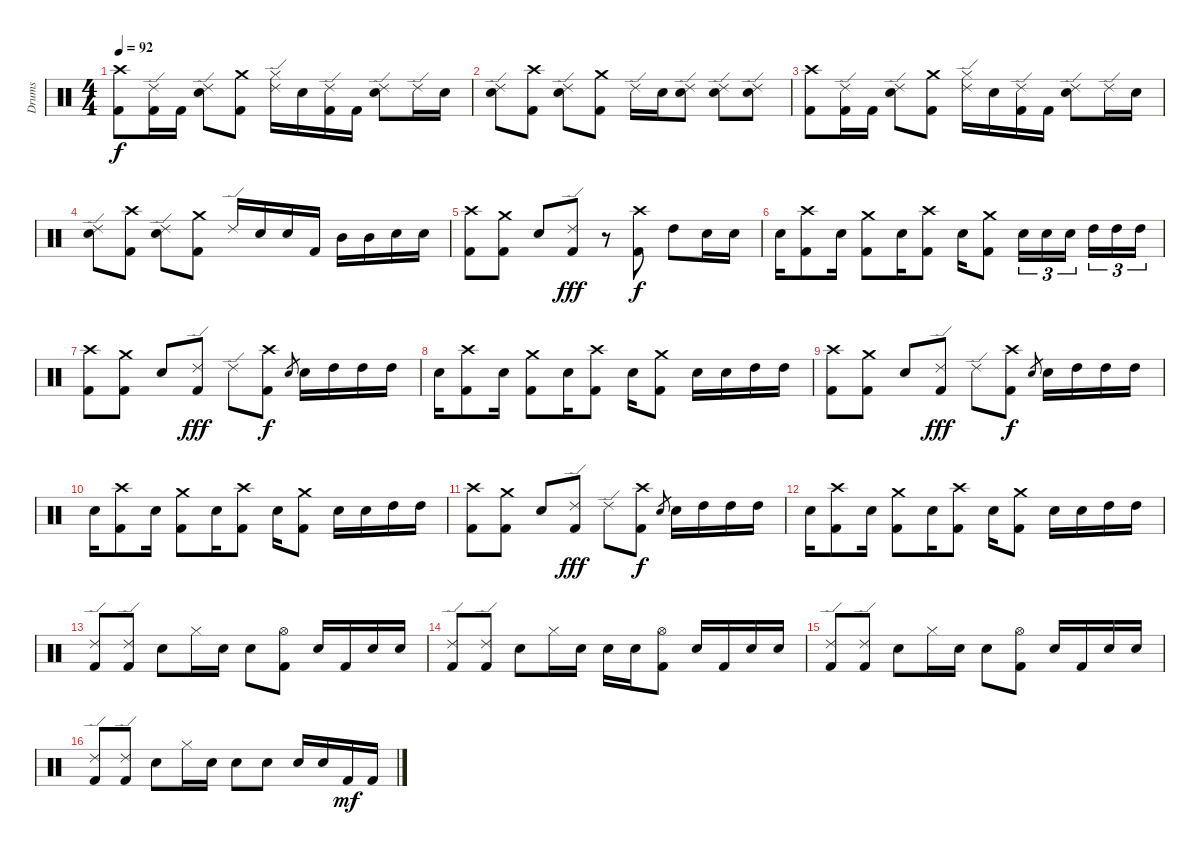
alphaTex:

\track ("Drums" "Drums") {instrument percussion}
\staff {score}
\articulation defaults
\ts (4 4)
\tempo 92
\clef neutral
\ks c
("Crash high (hit)" "Kick (hit) 2").8{dy f} ("Ride (edge) 2" "Kick (hit) 2").16 "Kick (hit) 2".16 ("Ride (edge) 2" "Snare (hit) 2").8 ("Crash medium (hit)" "Kick (hit) 2").8 ("Ride (edge) 2" "Hi-Hat (closed)").16 "Snare (hit) 2".16 ("Ride (edge) 2" "Kick (hit) 2").16 "Kick (hit) 2".16 ("Ride (edge) 2" "Snare (hit) 2").8 "Ride (edge) 2".16 "Snare (hit) 2".16 |
("Ride (edge) 2" "Snare (hit) 2").8 ("Crash high (hit)" "Kick (hit) 2").8 ("Ride (edge) 2" "Snare (hit) 2").8 ("Crash medium (hit)" "Kick (hit) 2").8 "Ride (edge) 2".16 "Snare (hit) 2".16 ("Ride (edge) 2" "Snare (hit) 2").8 ("Ride (edge) 2" "Snare (hit) 2").8 ("Ride (edge) 2" "Snare (hit) 2").8 |
("Crash high (hit)" "Kick (hit) 2").8 ("Ride (edge) 2" "Kick (hit) 2").16 "Kick (hit) 2".16 ("Ride (edge) 2" "Snare (hit) 2").8 ("Crash medium (hit)" "Kick (hit) 2").8 ("Ride (edge) 2" "Hi-Hat (closed)").16 "Snare (hit) 2".16 ("Ride (edge) 2" "Kick (hit) 2").16 "Kick (hit) 2".16 ("Ride (edge) 2" "Snare (hit) 2").8 "Ride (edge) 2".16 "Snare (hit) 2".16 |
("Ride (edge) 2" "Snare (hit) 2").8 ("Crash high (hit)" "Kick (hit) 2").8 ("Ride (edge) 2" "Snare (hit) 2").8 ("Crash medium (hit)" "Kick (hit) 2").8 "Ride (edge) 2".16 "Snare (hit) 2".16 "Snare (hit) 2".16 "Kick (hit) 2".16 "Mid Tom (hit)".16 "Mid Tom (hit)".16 "Snare (hit) 2".16 "Snare (hit) 2".16 |
("Crash high (hit)" "Kick (hit) 2").8 ("Crash medium (hit)" "Kick (hit) 2").8 "Snare (hit) 2".8 ("Ride (edge) 2" "Kick (hit) 2").8{dy fff} r.8 ("Crash high (hit)" "Kick (hit) 2").8{dy f} "High Tom (hit)".8 "Snare (hit) 2".16 "Snare (hit) 2".16 |
"Snare (hit) 2".16 ("Crash high (hit)" "Kick (hit) 2").8 "Snare (hit) 2".16 ("Crash medium (hit)" "Kick (hit) 2").8 "Snare (hit) 2".16 ("Crash high (hit)" "Kick (hit) 2").8 "Snare (hit) 2".16 ("Crash medium (hit)" "Kick (hit) 2").8 "Snare (hit) 2".16{tu (3 2)} "Snare (hit) 2".16{tu (3 2)} "Snare (hit) 2".16{tu (3 2)} "High Tom (hit)".16{tu (3 2)} "High Tom (hit)".16{tu (3 2)} "High Tom (hit)".16{tu (3 2)} |
("Crash high (hit)" "Kick (hit) 2").8 ("Crash medium (hit)" "Kick (hit) 2").8 "Snare (hit) 2".8 ("Ride (edge) 2" "Kick (hit) 2").8{dy fff} "Ride (edge) 2".8 ("Crash high (hit)" "Kick (hit) 2").8{dy f} "Snare (hit) 2".8{gr} "Snare (hit) 2".16 "High Tom (hit)".16 "High Tom (hit)".16 "High Tom (hit)".16 |
"Snare (hit) 2".16 ("Crash high (hit)" "Kick (hit) 2").8 "Snare (hit) 2".16 ("Crash medium (hit)" "Kick (hit) 2").8 "Snare (hit) 2".16 ("Crash high (hit)" "Kick (hit) 2").8 "Snare (hit) 2".16 ("Crash medium (hit)" "Kick (hit) 2").8 "Snare (hit) 2".16 "Snare (hit) 2".16 "High Tom (hit)".16 "High Tom (hit)".16 |
("Crash high (hit)" "Kick (hit) 2").8 ("Crash medium (hit)" "Kick (hit) 2").8 "Snare (hit) 2".8 ("Ride (edge) 2" "Kick (hit) 2").8{dy fff} "Ride (edge) 2".8 ("Crash high (hit)" "Kick (hit) 2").8{dy f} "Snare (hit) 2".8{gr} "Snare (hit) 2".16 "High Tom (hit)".16 "High Tom (hit)".16 "High Tom (hit)".16 |
"Snare (hit) 2".16 ("Crash high (hit)" "Kick (hit) 2").8 "Snare (hit) 2".16 ("Crash medium (hit)" "Kick (hit) 2").8 "Snare (hit) 2".16 ("Crash high (hit)" "Kick (hit) 2").8 "Snare (hit) 2".16 ("Crash medium (hit)" "Kick (hit) 2").8 "Snare (hit) 2".16 "Snare (hit) 2".16 "High Tom (hit)".16 "High Tom (hit)".16 |
("Crash high (hit)" "Kick (hit) 2").8 ("Crash medium (hit)" "Kick (hit) 2").8 "Snare (hit) 2".8 ("Ride (edge) 2" "Kick (hit) 2").8{dy fff} "Ride (edge) 2".8 ("Crash high (hit)" "Kick (hit) 2").8{dy f} "Snare (hit) 2".8{gr} "Snare (hit) 2".16 "High Tom (hit)".16 "High Tom (hit)".16 "High Tom (hit)".16 |
"Snare (hit) 2".16 ("Crash high (hit)" "Kick (hit) 2").8 "Snare (hit) 2".16 ("Crash medium (hit)" "Kick (hit) 2").8 "Snare (hit) 2".16 ("Crash high (hit)" "Kick (hit) 2").8 "Snare (hit) 2".16 ("Crash medium (hit)" "Kick (hit) 2").8 "Snare (hit) 2".16 "Snare (hit) 2".16 "High Tom (hit)".16 "High Tom (hit)".16 |
("Ride (edge) 2" "Kick (hit) 2").8 ("Ride (edge) 2" "Kick (hit) 2").8 "Snare (hit) 2".8 "Hi-Hat (closed)".16 "Snare (hit) 2".16 "Snare (hit) 2".8 ("Hi-Hat (open)" "Kick (hit) 2").8 "Snare (hit) 2".16 "Kick (hit) 2".16 "Snare (hit) 2".16 "Snare (hit) 2".16 |
("Ride (edge) 2" "Kick (hit) 2").8 ("Ride (edge) 2" "Kick (hit) 2").8 "Snare (hit) 2".8 "Hi-Hat (closed)".16 "Snare (hit) 2".16 "Snare (hit) 2".16 "Snare (hit) 2".16 ("Hi-Hat (open)" "Kick (hit) 2").8 "Snare (hit) 2".16 "Kick (hit) 2".16 "Snare (hit) 2".16 "Snare (hit) 2".16 |
("Ride (edge) 2" "Kick (hit) 2").8 ("Ride (edge) 2" "Kick (hit) 2").8 "Snare (hit) 2".8 "Hi-Hat (closed)".16 "Snare (hit) 2".16 "Snare (hit) 2".8 ("Hi-Hat (open)" "Kick (hit) 2").8 "Snare (hit) 2".16 "Kick (hit) 2".16 "Snare (hit) 2".16 "Snare (hit) 2".16 |
("Ride (edge) 2" "Kick (hit) 2").8 ("Ride (edge) 2" "Kick (hit) 2").8 "Snare (hit) 2".8 "Hi-Hat (closed)".16 "Snare (hit) 2".16 "Snare (hit) 2".8 "Snare (hit) 2".8 "Snare (hit) 2".16 "Snare (hit) 2".16 "Kick (hit) 2".16{dy mf} "Kick (hit) 2".16
